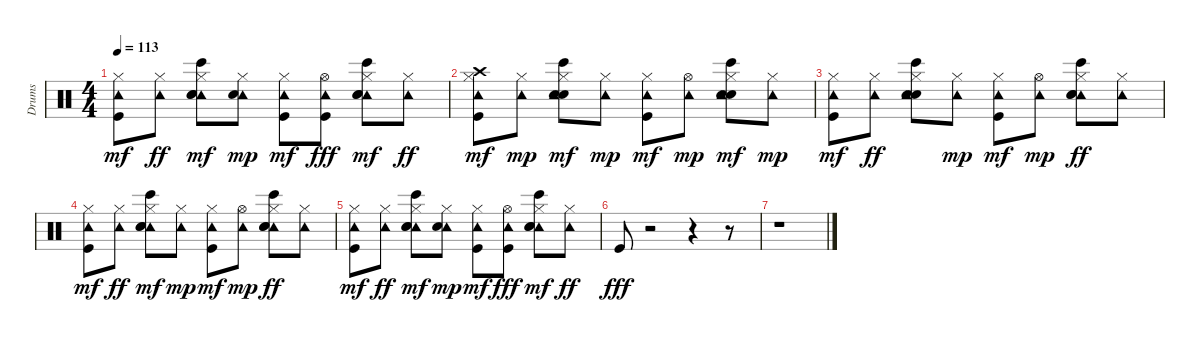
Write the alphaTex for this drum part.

\track ("Drums" "Drums") {instrument percussion}
\staff {score}
\articulation defaults
\ts (4 4)
\tempo 113
\clef neutral
\ks c
("Kick (hit)" "Hi-Hat (closed)" "Tambourine (hit)").8{dy mf} ("Tambourine (hit)" "Hi-Hat (closed)").8{dy ff} ("Hi-Hat (closed)" "Tambourine (hit)" "Bongo High (hit)" "Snare (hit) 2" "Hand Clap (hit)").8{dy mf} ("Hi-Hat (closed)" "Tambourine (hit)" "Snare (hit) 2").8{dy mp} ("Kick (hit)" "Hi-Hat (closed)" "Tambourine (hit)").8{dy mf} ("Hi-Hat (open)" "Tambourine (hit)" "Kick (hit)").8{dy fff} ("Hi-Hat (closed)" "Tambourine (hit)" "Bongo High (hit)" "Snare (hit) 2" "Hand Clap (hit)").8{dy mf} ("Tambourine (hit)" "Hi-Hat (closed)").8{dy ff} |
("Kick (hit)" "Hi-Hat (closed)" "Crash high (hit)" "Tambourine (hit)").8{dy mf} ("Tambourine (hit)" "Hi-Hat (closed)").8{dy mp} ("Hi-Hat (closed)" "Bongo High (hit)" "Snare (hit) 2" "Hand Clap (hit)" "Tambourine (hit)").8{dy mf} ("Hi-Hat (closed)" "Tambourine (hit)").8{dy mp} ("Kick (hit)" "Hi-Hat (closed)" "Tambourine (hit)").8{dy mf} ("Tambourine (hit)" "Hi-Hat (open)").8{dy mp} ("Hi-Hat (closed)" "Bongo High (hit)" "Snare (hit) 2" "Hand Clap (hit)" "Tambourine (hit)").8{dy mf} ("Hi-Hat (closed)" "Tambourine (hit)").8{dy mp} |
("Kick (hit)" "Hi-Hat (closed)" "Tambourine (hit)").8{dy mf} ("Tambourine (hit)" "Hi-Hat (closed)").8{dy ff} ("Bongo High (hit)" "Snare (hit) 2" "Hand Clap (hit)" "Tambourine (hit)" "Hi-Hat (closed)").8 ("Hi-Hat (closed)" "Tambourine (hit)").8{dy mp} ("Kick (hit)" "Hi-Hat (closed)" "Tambourine (hit)").8{dy mf} ("Tambourine (hit)" "Hi-Hat (open)").8{dy mp} ("Tambourine (hit)" "Bongo High (hit)" "Snare (hit) 2" "Hand Clap (hit)" "Hi-Hat (closed)").8{dy ff} ("Tambourine (hit)" "Hi-Hat (closed)").8 |
("Kick (hit)" "Hi-Hat (closed)" "Tambourine (hit)").8{dy mf} ("Tambourine (hit)" "Hi-Hat (closed)").8{dy ff} ("Tambourine (hit)" "Hi-Hat (closed)" "Bongo High (hit)" "Snare (hit) 2" "Hand Clap (hit)").8{dy mf} ("Hi-Hat (closed)" "Tambourine (hit)").8{dy mp} ("Kick (hit)" "Hi-Hat (closed)" "Tambourine (hit)").8{dy mf} ("Tambourine (hit)" "Hi-Hat (open)").8{dy mp} ("Tambourine (hit)" "Bongo High (hit)" "Snare (hit) 2" "Hand Clap (hit)" "Hi-Hat (closed)").8{dy ff} ("Tambourine (hit)" "Hi-Hat (closed)").8 |
("Kick (hit)" "Hi-Hat (closed)" "Tambourine (hit)").8{dy mf} ("Tambourine (hit)" "Hi-Hat (closed)").8{dy ff} ("Hi-Hat (closed)" "Tambourine (hit)" "Bongo High (hit)" "Snare (hit) 2" "Hand Clap (hit)").8{dy mf} ("Hi-Hat (closed)" "Tambourine (hit)" "Snare (hit) 2").8{dy mp} ("Kick (hit)" "Hi-Hat (closed)" "Tambourine (hit)").8{dy mf} ("Hi-Hat (open)" "Tambourine (hit)" "Kick (hit)").8{dy fff} ("Hi-Hat (closed)" "Tambourine (hit)" "Bongo High (hit)" "Snare (hit) 2" "Hand Clap (hit)").8{dy mf} ("Tambourine (hit)" "Hi-Hat (closed)").8{dy ff} |
"Kick (hit)".8{dy fff} r.2 r.4 r.8 |
r.1
